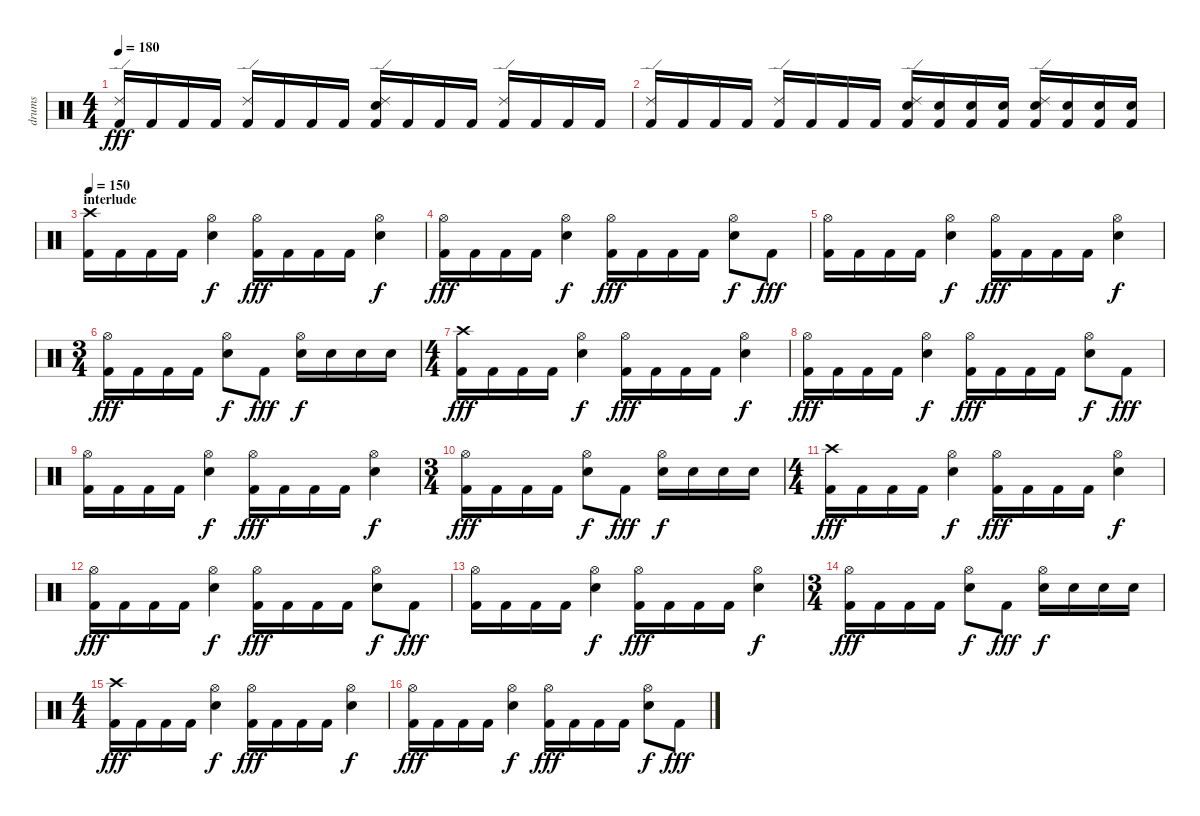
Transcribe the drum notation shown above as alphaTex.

\track ("drums" "drums") {instrument percussion}
\staff {score}
\articulation defaults
\ts (4 4)
\tempo 180
\clef neutral
\ks c
("Ride (edge) 2" "Kick (hit) 2").16{dy fff} "Kick (hit) 2".16 "Kick (hit) 2".16 "Kick (hit) 2".16 ("Ride (edge) 2" "Kick (hit) 2").16 "Kick (hit) 2".16 "Kick (hit) 2".16 "Kick (hit) 2".16 ("Ride (edge) 2" "Snare (hit) 2" "Kick (hit) 2").16 "Kick (hit) 2".16 "Kick (hit) 2".16 "Kick (hit) 2".16 ("Ride (edge) 2" "Kick (hit) 2").16 "Kick (hit) 2".16 "Kick (hit) 2".16 "Kick (hit) 2".16 |
("Ride (edge) 2" "Kick (hit) 2").16 "Kick (hit) 2".16 "Kick (hit) 2".16 "Kick (hit) 2".16 ("Ride (edge) 2" "Kick (hit) 2").16 "Kick (hit) 2".16 "Kick (hit) 2".16 "Kick (hit) 2".16 ("Ride (edge) 2" "Snare (hit) 2" "Kick (hit) 2").16 ("Snare (hit) 2" "Kick (hit) 2").16 ("Snare (hit) 2" "Kick (hit) 2").16 ("Snare (hit) 2" "Kick (hit) 2").16 ("Ride (edge) 2" "Snare (hit) 2" "Kick (hit) 2").16 ("Snare (hit) 2" "Kick (hit) 2").16 ("Snare (hit) 2" "Kick (hit) 2").16 ("Snare (hit) 2" "Kick (hit) 2").16 |
\section ("" "interlude")
\tempo 150
("Crash high (hit)" "Kick (hit) 2").16 "Kick (hit) 2".16 "Kick (hit) 2".16 "Kick (hit) 2".16 ("Hi-Hat (open)" "Snare (hit) 2").4{dy f} ("Hi-Hat (open)" "Kick (hit) 2").16{dy fff} "Kick (hit) 2".16 "Kick (hit) 2".16 "Kick (hit) 2".16 ("Hi-Hat (open)" "Snare (hit) 2").4{dy f} |
("Hi-Hat (open)" "Kick (hit) 2").16{dy fff} "Kick (hit) 2".16 "Kick (hit) 2".16 "Kick (hit) 2".16 ("Hi-Hat (open)" "Snare (hit) 2").4{dy f} ("Hi-Hat (open)" "Kick (hit) 2").16{dy fff} "Kick (hit) 2".16 "Kick (hit) 2".16 "Kick (hit) 2".16 ("Hi-Hat (open)" "Snare (hit) 2").8{dy f} "Kick (hit) 2".8{dy fff} |
("Hi-Hat (open)" "Kick (hit) 2").16 "Kick (hit) 2".16 "Kick (hit) 2".16 "Kick (hit) 2".16 ("Hi-Hat (open)" "Snare (hit) 2").4{dy f} ("Hi-Hat (open)" "Kick (hit) 2").16{dy fff} "Kick (hit) 2".16 "Kick (hit) 2".16 "Kick (hit) 2".16 ("Hi-Hat (open)" "Snare (hit) 2").4{dy f} |
\ts (3 4)
("Hi-Hat (open)" "Kick (hit) 2").16{dy fff} "Kick (hit) 2".16 "Kick (hit) 2".16 "Kick (hit) 2".16 ("Hi-Hat (open)" "Snare (hit) 2").8{dy f} "Kick (hit) 2".8{dy fff} ("Hi-Hat (open)" "Snare (hit) 2").16{dy f} "Snare (hit) 2".16 "Snare (hit) 2".16 "Snare (hit) 2".16 |
\ts (4 4)
("Crash high (hit)" "Kick (hit) 2").16{dy fff} "Kick (hit) 2".16 "Kick (hit) 2".16 "Kick (hit) 2".16 ("Hi-Hat (open)" "Snare (hit) 2").4{dy f} ("Hi-Hat (open)" "Kick (hit) 2").16{dy fff} "Kick (hit) 2".16 "Kick (hit) 2".16 "Kick (hit) 2".16 ("Hi-Hat (open)" "Snare (hit) 2").4{dy f} |
("Hi-Hat (open)" "Kick (hit) 2").16{dy fff} "Kick (hit) 2".16 "Kick (hit) 2".16 "Kick (hit) 2".16 ("Hi-Hat (open)" "Snare (hit) 2").4{dy f} ("Hi-Hat (open)" "Kick (hit) 2").16{dy fff} "Kick (hit) 2".16 "Kick (hit) 2".16 "Kick (hit) 2".16 ("Hi-Hat (open)" "Snare (hit) 2").8{dy f} "Kick (hit) 2".8{dy fff} |
("Hi-Hat (open)" "Kick (hit) 2").16 "Kick (hit) 2".16 "Kick (hit) 2".16 "Kick (hit) 2".16 ("Hi-Hat (open)" "Snare (hit) 2").4{dy f} ("Hi-Hat (open)" "Kick (hit) 2").16{dy fff} "Kick (hit) 2".16 "Kick (hit) 2".16 "Kick (hit) 2".16 ("Hi-Hat (open)" "Snare (hit) 2").4{dy f} |
\ts (3 4)
("Hi-Hat (open)" "Kick (hit) 2").16{dy fff} "Kick (hit) 2".16 "Kick (hit) 2".16 "Kick (hit) 2".16 ("Hi-Hat (open)" "Snare (hit) 2").8{dy f} "Kick (hit) 2".8{dy fff} ("Hi-Hat (open)" "Snare (hit) 2").16{dy f} "Snare (hit) 2".16 "Snare (hit) 2".16 "Snare (hit) 2".16 |
\ts (4 4)
("Crash high (hit)" "Kick (hit) 2").16{dy fff} "Kick (hit) 2".16 "Kick (hit) 2".16 "Kick (hit) 2".16 ("Hi-Hat (open)" "Snare (hit) 2").4{dy f} ("Hi-Hat (open)" "Kick (hit) 2").16{dy fff} "Kick (hit) 2".16 "Kick (hit) 2".16 "Kick (hit) 2".16 ("Hi-Hat (open)" "Snare (hit) 2").4{dy f} |
("Hi-Hat (open)" "Kick (hit) 2").16{dy fff} "Kick (hit) 2".16 "Kick (hit) 2".16 "Kick (hit) 2".16 ("Hi-Hat (open)" "Snare (hit) 2").4{dy f} ("Hi-Hat (open)" "Kick (hit) 2").16{dy fff} "Kick (hit) 2".16 "Kick (hit) 2".16 "Kick (hit) 2".16 ("Hi-Hat (open)" "Snare (hit) 2").8{dy f} "Kick (hit) 2".8{dy fff} |
("Hi-Hat (open)" "Kick (hit) 2").16 "Kick (hit) 2".16 "Kick (hit) 2".16 "Kick (hit) 2".16 ("Hi-Hat (open)" "Snare (hit) 2").4{dy f} ("Hi-Hat (open)" "Kick (hit) 2").16{dy fff} "Kick (hit) 2".16 "Kick (hit) 2".16 "Kick (hit) 2".16 ("Hi-Hat (open)" "Snare (hit) 2").4{dy f} |
\ts (3 4)
("Hi-Hat (open)" "Kick (hit) 2").16{dy fff} "Kick (hit) 2".16 "Kick (hit) 2".16 "Kick (hit) 2".16 ("Hi-Hat (open)" "Snare (hit) 2").8{dy f} "Kick (hit) 2".8{dy fff} ("Hi-Hat (open)" "Snare (hit) 2").16{dy f} "Snare (hit) 2".16 "Snare (hit) 2".16 "Snare (hit) 2".16 |
\ts (4 4)
("Crash high (hit)" "Kick (hit) 2").16{dy fff} "Kick (hit) 2".16 "Kick (hit) 2".16 "Kick (hit) 2".16 ("Hi-Hat (open)" "Snare (hit) 2").4{dy f} ("Hi-Hat (open)" "Kick (hit) 2").16{dy fff} "Kick (hit) 2".16 "Kick (hit) 2".16 "Kick (hit) 2".16 ("Hi-Hat (open)" "Snare (hit) 2").4{dy f} |
("Hi-Hat (open)" "Kick (hit) 2").16{dy fff} "Kick (hit) 2".16 "Kick (hit) 2".16 "Kick (hit) 2".16 ("Hi-Hat (open)" "Snare (hit) 2").4{dy f} ("Hi-Hat (open)" "Kick (hit) 2").16{dy fff} "Kick (hit) 2".16 "Kick (hit) 2".16 "Kick (hit) 2".16 ("Hi-Hat (open)" "Snare (hit) 2").8{dy f} "Kick (hit) 2".8{dy fff}
